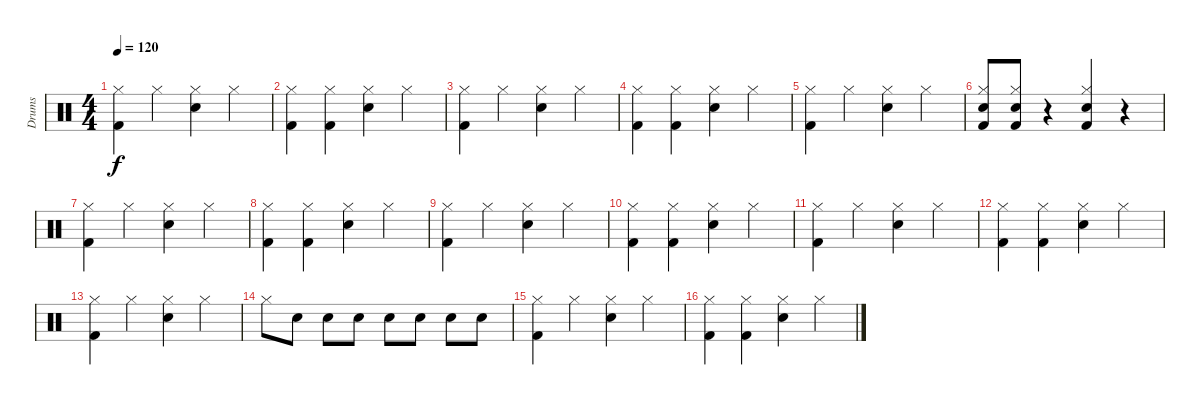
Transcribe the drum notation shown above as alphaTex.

\track ("Drums" "Drums") {instrument percussion}
\staff {score}
\articulation defaults
\ts (4 4)
\tempo 120
\clef neutral
\ks c
("Kick (hit) 2" "Hi-Hat (closed)").4{dy f} "Hi-Hat (closed)".4 ("Snare (hit) 2" "Hi-Hat (closed)").4 "Hi-Hat (closed)".4 |
("Kick (hit) 2" "Hi-Hat (closed)").4 ("Kick (hit) 2" "Hi-Hat (closed)").4 ("Snare (hit) 2" "Hi-Hat (closed)").4 "Hi-Hat (closed)".4 |
("Kick (hit) 2" "Hi-Hat (closed)").4 "Hi-Hat (closed)".4 ("Snare (hit) 2" "Hi-Hat (closed)").4 "Hi-Hat (closed)".4 |
("Kick (hit) 2" "Hi-Hat (closed)").4 ("Kick (hit) 2" "Hi-Hat (closed)").4 ("Snare (hit) 2" "Hi-Hat (closed)").4 "Hi-Hat (closed)".4 |
("Kick (hit) 2" "Hi-Hat (closed)").4 "Hi-Hat (closed)".4 ("Snare (hit) 2" "Hi-Hat (closed)").4 "Hi-Hat (closed)".4 |
("Kick (hit) 2" "Hi-Hat (closed)" "Snare (hit) 2").8 ("Kick (hit) 2" "Hi-Hat (closed)" "Snare (hit) 2").8 r.4 ("Kick (hit) 2" "Hi-Hat (closed)" "Snare (hit) 2").4 r.4 |
("Kick (hit) 2" "Hi-Hat (closed)").4 "Hi-Hat (closed)".4 ("Snare (hit) 2" "Hi-Hat (closed)").4 "Hi-Hat (closed)".4 |
("Kick (hit) 2" "Hi-Hat (closed)").4 ("Kick (hit) 2" "Hi-Hat (closed)").4 ("Snare (hit) 2" "Hi-Hat (closed)").4 "Hi-Hat (closed)".4 |
("Kick (hit) 2" "Hi-Hat (closed)").4 "Hi-Hat (closed)".4 ("Snare (hit) 2" "Hi-Hat (closed)").4 "Hi-Hat (closed)".4 |
("Kick (hit) 2" "Hi-Hat (closed)").4 ("Kick (hit) 2" "Hi-Hat (closed)").4 ("Snare (hit) 2" "Hi-Hat (closed)").4 "Hi-Hat (closed)".4 |
("Kick (hit) 2" "Hi-Hat (closed)").4 "Hi-Hat (closed)".4 ("Snare (hit) 2" "Hi-Hat (closed)").4 "Hi-Hat (closed)".4 |
("Kick (hit) 2" "Hi-Hat (closed)").4 ("Kick (hit) 2" "Hi-Hat (closed)").4 ("Snare (hit) 2" "Hi-Hat (closed)").4 "Hi-Hat (closed)".4 |
("Kick (hit) 2" "Hi-Hat (closed)").4 "Hi-Hat (closed)".4 ("Snare (hit) 2" "Hi-Hat (closed)").4 "Hi-Hat (closed)".4 |
"Hi-Hat (closed)".8 "Snare (hit) 2".8 "Snare (hit) 2".8 "Snare (hit) 2".8 "Snare (hit) 2".8 "Snare (hit) 2".8 "Snare (hit) 2".8 "Snare (hit) 2".8 |
("Kick (hit) 2" "Hi-Hat (closed)").4 "Hi-Hat (closed)".4 ("Snare (hit) 2" "Hi-Hat (closed)").4 "Hi-Hat (closed)".4 |
("Kick (hit) 2" "Hi-Hat (closed)").4 ("Kick (hit) 2" "Hi-Hat (closed)").4 ("Snare (hit) 2" "Hi-Hat (closed)").4 "Hi-Hat (closed)".4
